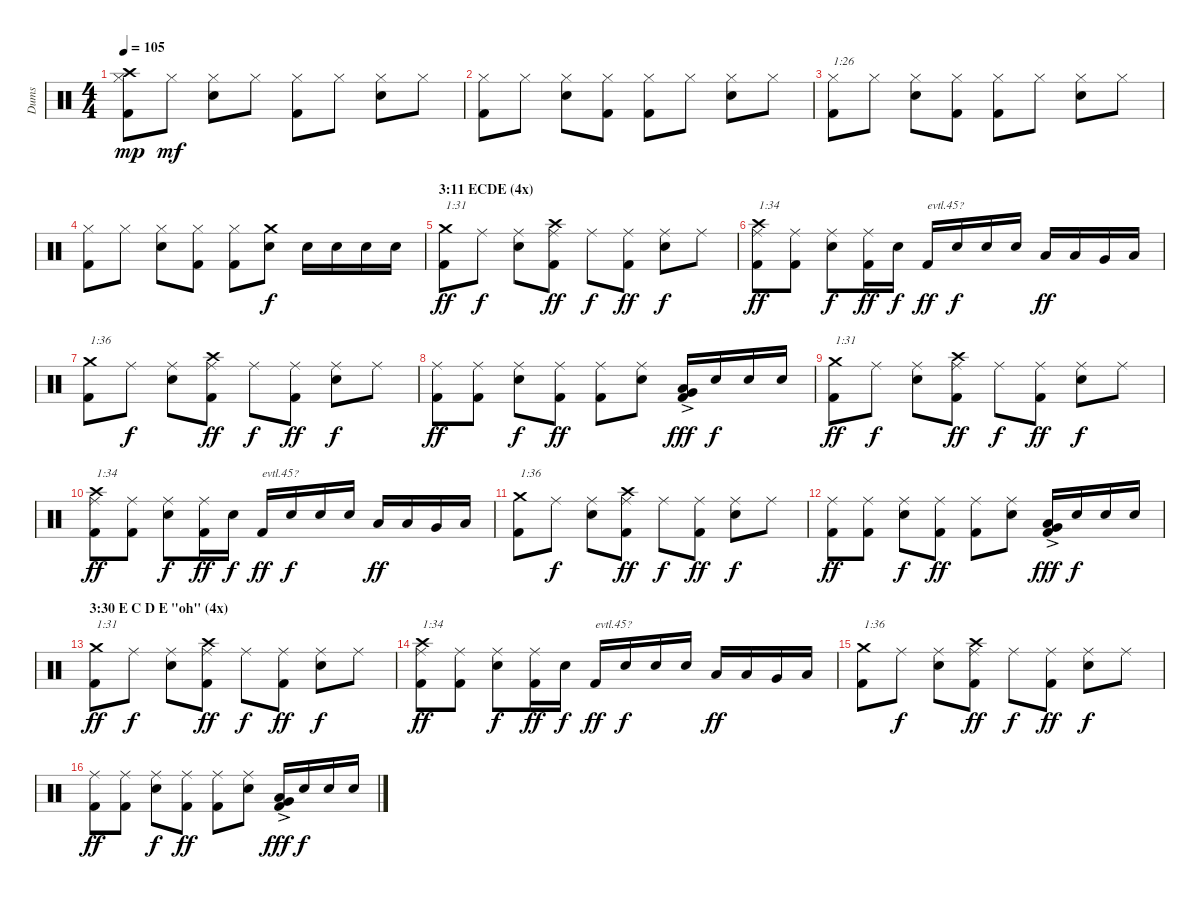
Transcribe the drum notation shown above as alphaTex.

\track ("Dums" "Dums") {instrument percussion}
\staff {score}
\articulation defaults
\ts (4 4)
\tempo 105
\clef neutral
\ks c
("Kick (hit) 2" "Hi-Hat (closed)" "Crash high (hit)").8{dy mp} "Hi-Hat (closed)".8{dy mf} ("Electric Snare (hit)" "Hi-Hat (closed)").8 "Hi-Hat (closed)".8 ("Kick (hit) 2" "Hi-Hat (closed)").8 "Hi-Hat (closed)".8 ("Electric Snare (hit)" "Hi-Hat (closed)").8 "Hi-Hat (closed)".8 |
("Kick (hit) 2" "Hi-Hat (closed)").8 "Hi-Hat (closed)".8 ("Electric Snare (hit)" "Hi-Hat (closed)").8 ("Kick (hit) 2" "Hi-Hat (closed)").8 ("Kick (hit) 2" "Hi-Hat (closed)").8 "Hi-Hat (closed)".8 ("Electric Snare (hit)" "Hi-Hat (closed)").8 "Hi-Hat (closed)".8 |
("Kick (hit) 2" "Hi-Hat (closed)").8{txt "1:26"} "Hi-Hat (closed)".8 ("Electric Snare (hit)" "Hi-Hat (closed)").8 ("Kick (hit) 2" "Hi-Hat (closed)").8 ("Kick (hit) 2" "Hi-Hat (closed)").8 "Hi-Hat (closed)".8 ("Electric Snare (hit)" "Hi-Hat (closed)").8 "Hi-Hat (closed)".8 |
("Kick (hit) 2" "Hi-Hat (closed)").8 "Hi-Hat (closed)".8 ("Electric Snare (hit)" "Hi-Hat (closed)").8 ("Kick (hit) 2" "Hi-Hat (closed)").8 ("Kick (hit) 2" "Hi-Hat (closed)").8 ("Electric Snare (hit)" "Crash medium (hit)").8{dy f} "Electric Snare (hit)".16 "Electric Snare (hit)".16 "Electric Snare (hit)".16 "Electric Snare (hit)".16 |
\section ("" "3:11 ECDE (4x)")
("Kick (hit) 2" "Crash medium (hit)").8{txt "1:31" dy ff} "Ride (middle)".8{dy f} ("Electric Snare (hit)" "Ride (middle)").8 ("Kick (hit) 2" "Ride (middle)" "Crash high (hit)").8{dy ff} "Ride (middle)".8{dy f} ("Kick (hit) 2" "Ride (middle)").8{dy ff} ("Electric Snare (hit)" "Ride (middle)").8{dy f} "Ride (middle)".8 |
("Kick (hit) 2" "Ride (middle)" "Crash high (hit)").8{txt "1:34" dy ff} ("Kick (hit) 2" "Ride (middle)").8 ("Electric Snare (hit)" "Ride (middle)").8{dy f} ("Kick (hit) 2" "Ride (middle)").16{dy ff} "Electric Snare (hit)".16{dy f} "Kick (hit) 2".16{txt "evtl.45?" dy ff} "Electric Snare (hit)".16{dy f} "Electric Snare (hit)".16 "Electric Snare (hit)".16 "Low Tom (hit)".16{dy ff} "Low Tom (hit)".16 "Very Low Tom (hit)".16 "Low Floor Tom (hit)".16 |
("Kick (hit) 2" "Crash medium (hit)").8{txt "1:36"} "Ride (middle)".8{dy f} ("Electric Snare (hit)" "Ride (middle)").8 ("Kick (hit) 2" "Ride (middle)" "Crash high (hit)").8{dy ff} "Ride (middle)".8{dy f} ("Kick (hit) 2" "Ride (middle)").8{dy ff} ("Electric Snare (hit)" "Ride (middle)").8{dy f} "Ride (middle)".8 |
("Kick (hit) 2" "Ride (middle)").8{dy ff} ("Kick (hit) 2" "Ride (middle)").8 ("Electric Snare (hit)" "Ride (middle)").8{dy f} ("Kick (hit) 2" "Ride (middle)").8{dy ff} ("Kick (hit) 2" "Ride (middle)").8 ("Electric Snare (hit)" "Ride (middle)").8 ("Kick (hit) 2" "Low Floor Tom (hit)"{ac} "Very Low Tom (hit)"{ac}).16{dy fff} "Electric Snare (hit)".16{dy f} "Electric Snare (hit)".16 "Electric Snare (hit)".16 |
("Kick (hit) 2" "Crash medium (hit)").8{txt "1:31" dy ff} "Ride (middle)".8{dy f} ("Electric Snare (hit)" "Ride (middle)").8 ("Kick (hit) 2" "Ride (middle)" "Crash high (hit)").8{dy ff} "Ride (middle)".8{dy f} ("Kick (hit) 2" "Ride (middle)").8{dy ff} ("Electric Snare (hit)" "Ride (middle)").8{dy f} "Ride (middle)".8 |
("Kick (hit) 2" "Ride (middle)" "Crash high (hit)").8{txt "1:34" dy ff} ("Kick (hit) 2" "Ride (middle)").8 ("Electric Snare (hit)" "Ride (middle)").8{dy f} ("Kick (hit) 2" "Ride (middle)").16{dy ff} "Electric Snare (hit)".16{dy f} "Kick (hit) 2".16{txt "evtl.45?" dy ff} "Electric Snare (hit)".16{dy f} "Electric Snare (hit)".16 "Electric Snare (hit)".16 "Low Tom (hit)".16{dy ff} "Low Tom (hit)".16 "Very Low Tom (hit)".16 "Low Floor Tom (hit)".16 |
("Kick (hit) 2" "Crash medium (hit)").8{txt "1:36"} "Ride (middle)".8{dy f} ("Electric Snare (hit)" "Ride (middle)").8 ("Kick (hit) 2" "Ride (middle)" "Crash high (hit)").8{dy ff} "Ride (middle)".8{dy f} ("Kick (hit) 2" "Ride (middle)").8{dy ff} ("Electric Snare (hit)" "Ride (middle)").8{dy f} "Ride (middle)".8 |
("Kick (hit) 2" "Ride (middle)").8{dy ff} ("Kick (hit) 2" "Ride (middle)").8 ("Electric Snare (hit)" "Ride (middle)").8{dy f} ("Kick (hit) 2" "Ride (middle)").8{dy ff} ("Kick (hit) 2" "Ride (middle)").8 ("Electric Snare (hit)" "Ride (middle)").8 ("Kick (hit) 2" "Low Floor Tom (hit)"{ac} "Very Low Tom (hit)"{ac}).16{dy fff} "Electric Snare (hit)".16{dy f} "Electric Snare (hit)".16 "Electric Snare (hit)".16 |
\section ("" "3:30 E C D E \"oh\" (4x)")
("Kick (hit) 2" "Crash medium (hit)").8{txt "1:31" dy ff} "Ride (middle)".8{dy f} ("Electric Snare (hit)" "Ride (middle)").8 ("Kick (hit) 2" "Ride (middle)" "Crash high (hit)").8{dy ff} "Ride (middle)".8{dy f} ("Kick (hit) 2" "Ride (middle)").8{dy ff} ("Electric Snare (hit)" "Ride (middle)").8{dy f} "Ride (middle)".8 |
("Kick (hit) 2" "Ride (middle)" "Crash high (hit)").8{txt "1:34" dy ff} ("Kick (hit) 2" "Ride (middle)").8 ("Electric Snare (hit)" "Ride (middle)").8{dy f} ("Kick (hit) 2" "Ride (middle)").16{dy ff} "Electric Snare (hit)".16{dy f} "Kick (hit) 2".16{txt "evtl.45?" dy ff} "Electric Snare (hit)".16{dy f} "Electric Snare (hit)".16 "Electric Snare (hit)".16 "Low Tom (hit)".16{dy ff} "Low Tom (hit)".16 "Very Low Tom (hit)".16 "Low Floor Tom (hit)".16 |
("Kick (hit) 2" "Crash medium (hit)").8{txt "1:36"} "Ride (middle)".8{dy f} ("Electric Snare (hit)" "Ride (middle)").8 ("Kick (hit) 2" "Ride (middle)" "Crash high (hit)").8{dy ff} "Ride (middle)".8{dy f} ("Kick (hit) 2" "Ride (middle)").8{dy ff} ("Electric Snare (hit)" "Ride (middle)").8{dy f} "Ride (middle)".8 |
("Kick (hit) 2" "Ride (middle)").8{dy ff} ("Kick (hit) 2" "Ride (middle)").8 ("Electric Snare (hit)" "Ride (middle)").8{dy f} ("Kick (hit) 2" "Ride (middle)").8{dy ff} ("Kick (hit) 2" "Ride (middle)").8 ("Electric Snare (hit)" "Ride (middle)").8 ("Kick (hit) 2" "Low Floor Tom (hit)"{ac} "Very Low Tom (hit)"{ac}).16{dy fff} "Electric Snare (hit)".16{dy f} "Electric Snare (hit)".16 "Electric Snare (hit)".16
